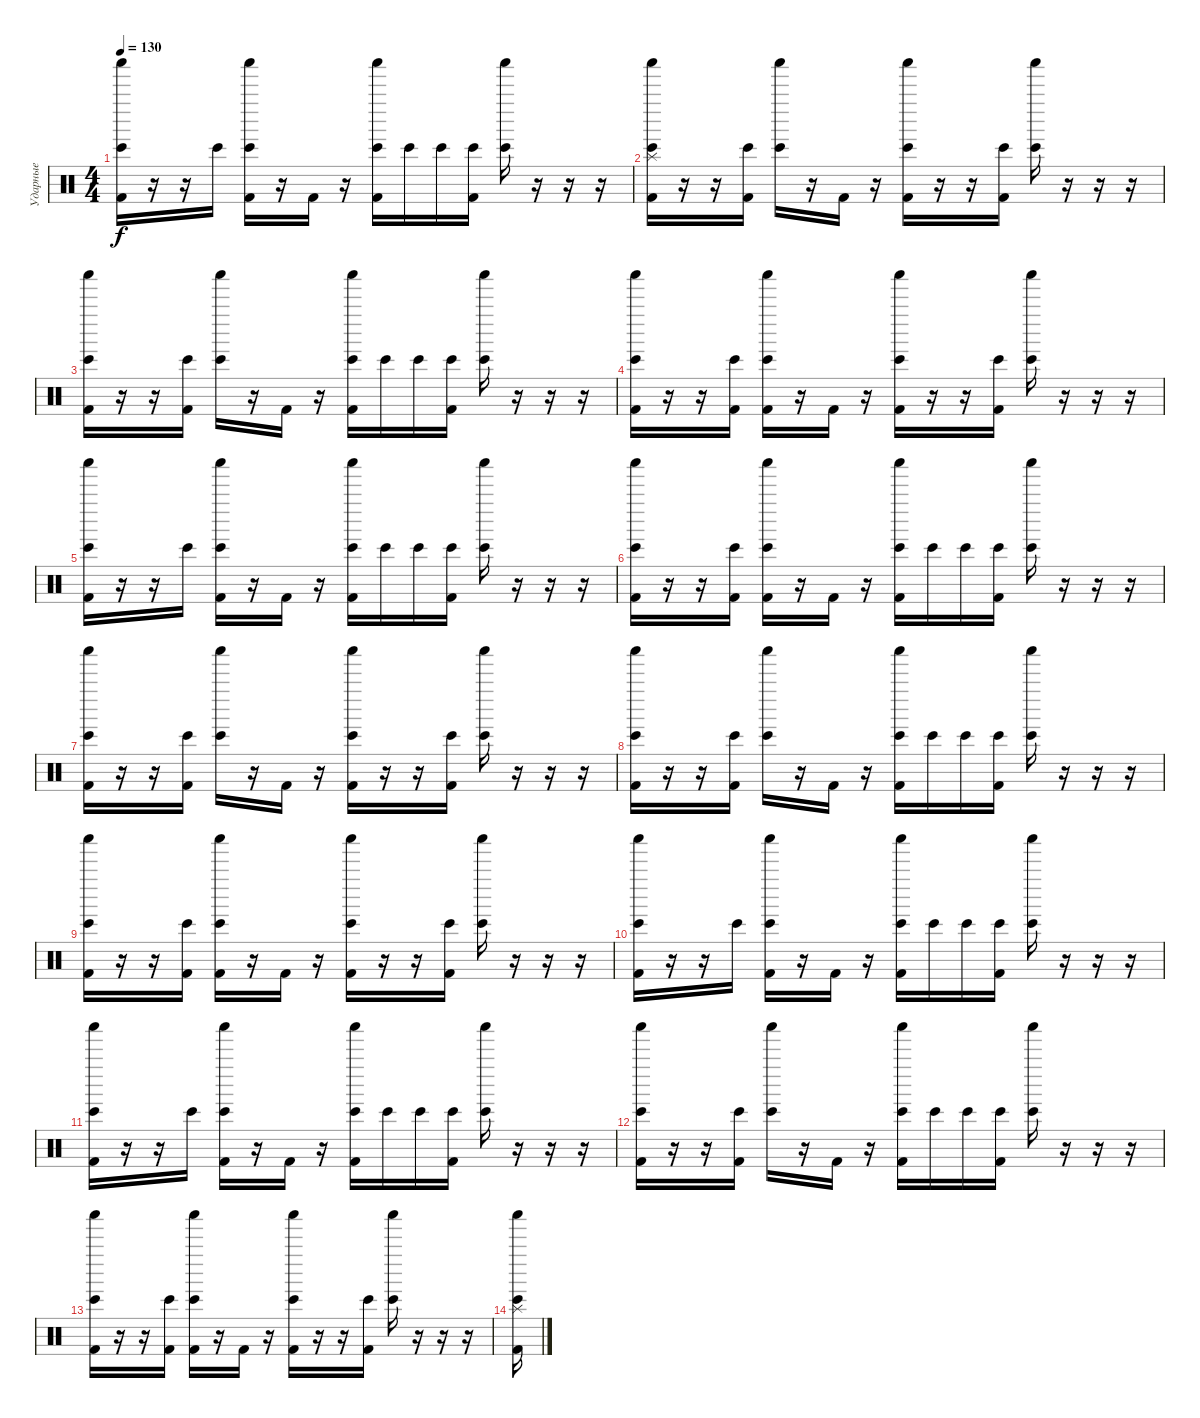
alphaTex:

\track ("Ударные" "Ударные") {instrument percussion}
\staff {score}
\articulation defaults
\ts (4 4)
\tempo 130
\clef neutral
\ks c
("Bongo High (hit)" "Shaker (hit)" "Kick (hit) 2").16{dy f} r.16 r.16 "Bongo High (hit)".16 ("Bongo High (hit)" "Shaker (hit)" "Kick (hit) 2").16 r.16 "Kick (hit) 2".16 r.16 ("Bongo High (hit)" "Shaker (hit)" "Kick (hit) 2").16 "Bongo High (hit)".16 "Bongo High (hit)".16 ("Bongo High (hit)" "Kick (hit) 2").16 ("Bongo High (hit)" "Shaker (hit)").16 r.16 r.16 r.16 |
("Bongo High (hit)" "Splash (hit)" "Shaker (hit)" "Kick (hit) 2").16 r.16 r.16 ("Bongo High (hit)" "Kick (hit) 2").16 ("Bongo High (hit)" "Shaker (hit)").16 r.16 "Kick (hit) 2".16 r.16 ("Bongo High (hit)" "Shaker (hit)" "Kick (hit) 2").16 r.16 r.16 ("Bongo High (hit)" "Kick (hit) 2").16 ("Bongo High (hit)" "Shaker (hit)").16 r.16 r.16 r.16 |
("Bongo High (hit)" "Shaker (hit)" "Kick (hit) 2").16 r.16 r.16 ("Bongo High (hit)" "Kick (hit) 2").16 ("Bongo High (hit)" "Shaker (hit)").16 r.16 "Kick (hit) 2".16 r.16 ("Bongo High (hit)" "Shaker (hit)" "Kick (hit) 2").16 "Bongo High (hit)".16 "Bongo High (hit)".16 ("Bongo High (hit)" "Kick (hit) 2").16 ("Bongo High (hit)" "Shaker (hit)").16 r.16 r.16 r.16 |
("Bongo High (hit)" "Shaker (hit)" "Kick (hit) 2").16 r.16 r.16 ("Bongo High (hit)" "Kick (hit) 2").16 ("Bongo High (hit)" "Shaker (hit)" "Kick (hit) 2").16 r.16 "Kick (hit) 2".16 r.16 ("Bongo High (hit)" "Shaker (hit)" "Kick (hit) 2").16 r.16 r.16 ("Bongo High (hit)" "Kick (hit) 2").16 ("Bongo High (hit)" "Shaker (hit)").16 r.16 r.16 r.16 |
("Bongo High (hit)" "Shaker (hit)" "Kick (hit) 2").16 r.16 r.16 "Bongo High (hit)".16 ("Bongo High (hit)" "Shaker (hit)" "Kick (hit) 2").16 r.16 "Kick (hit) 2".16 r.16 ("Bongo High (hit)" "Shaker (hit)" "Kick (hit) 2").16 "Bongo High (hit)".16 "Bongo High (hit)".16 ("Bongo High (hit)" "Kick (hit) 2").16 ("Bongo High (hit)" "Shaker (hit)").16 r.16 r.16 r.16 |
("Bongo High (hit)" "Shaker (hit)" "Kick (hit) 2").16 r.16 r.16 ("Bongo High (hit)" "Kick (hit) 2").16 ("Bongo High (hit)" "Shaker (hit)" "Kick (hit) 2").16 r.16 "Kick (hit) 2".16 r.16 ("Bongo High (hit)" "Shaker (hit)" "Kick (hit) 2").16 "Bongo High (hit)".16 "Bongo High (hit)".16 ("Bongo High (hit)" "Kick (hit) 2").16 ("Bongo High (hit)" "Shaker (hit)").16 r.16 r.16 r.16 |
("Bongo High (hit)" "Shaker (hit)" "Kick (hit) 2").16 r.16 r.16 ("Bongo High (hit)" "Kick (hit) 2").16 ("Bongo High (hit)" "Shaker (hit)").16 r.16 "Kick (hit) 2".16 r.16 ("Bongo High (hit)" "Shaker (hit)" "Kick (hit) 2").16 r.16 r.16 ("Bongo High (hit)" "Kick (hit) 2").16 ("Bongo High (hit)" "Shaker (hit)").16 r.16 r.16 r.16 |
("Bongo High (hit)" "Shaker (hit)" "Kick (hit) 2").16 r.16 r.16 ("Bongo High (hit)" "Kick (hit) 2").16 ("Bongo High (hit)" "Shaker (hit)").16 r.16 "Kick (hit) 2".16 r.16 ("Bongo High (hit)" "Shaker (hit)" "Kick (hit) 2").16 "Bongo High (hit)".16 "Bongo High (hit)".16 ("Bongo High (hit)" "Kick (hit) 2").16 ("Bongo High (hit)" "Shaker (hit)").16 r.16 r.16 r.16 |
("Bongo High (hit)" "Shaker (hit)" "Kick (hit) 2").16 r.16 r.16 ("Bongo High (hit)" "Kick (hit) 2").16 ("Bongo High (hit)" "Shaker (hit)" "Kick (hit) 2").16 r.16 "Kick (hit) 2".16 r.16 ("Bongo High (hit)" "Shaker (hit)" "Kick (hit) 2").16 r.16 r.16 ("Bongo High (hit)" "Kick (hit) 2").16 ("Bongo High (hit)" "Shaker (hit)").16 r.16 r.16 r.16 |
("Bongo High (hit)" "Shaker (hit)" "Kick (hit) 2").16 r.16 r.16 "Bongo High (hit)".16 ("Bongo High (hit)" "Shaker (hit)" "Kick (hit) 2").16 r.16 "Kick (hit) 2".16 r.16 ("Bongo High (hit)" "Shaker (hit)" "Kick (hit) 2").16 "Bongo High (hit)".16 "Bongo High (hit)".16 ("Bongo High (hit)" "Kick (hit) 2").16 ("Bongo High (hit)" "Shaker (hit)").16 r.16 r.16 r.16 |
("Bongo High (hit)" "Shaker (hit)" "Kick (hit) 2").16 r.16 r.16 "Bongo High (hit)".16 ("Bongo High (hit)" "Shaker (hit)" "Kick (hit) 2").16 r.16 "Kick (hit) 2".16 r.16 ("Bongo High (hit)" "Shaker (hit)" "Kick (hit) 2").16 "Bongo High (hit)".16 "Bongo High (hit)".16 ("Bongo High (hit)" "Kick (hit) 2").16 ("Bongo High (hit)" "Shaker (hit)").16 r.16 r.16 r.16 |
("Bongo High (hit)" "Shaker (hit)" "Kick (hit) 2").16 r.16 r.16 ("Bongo High (hit)" "Kick (hit) 2").16 ("Bongo High (hit)" "Shaker (hit)").16 r.16 "Kick (hit) 2".16 r.16 ("Bongo High (hit)" "Shaker (hit)" "Kick (hit) 2").16 "Bongo High (hit)".16 "Bongo High (hit)".16 ("Bongo High (hit)" "Kick (hit) 2").16 ("Bongo High (hit)" "Shaker (hit)").16 r.16 r.16 r.16 |
("Bongo High (hit)" "Shaker (hit)" "Kick (hit) 2").16 r.16 r.16 ("Bongo High (hit)" "Kick (hit) 2").16 ("Bongo High (hit)" "Shaker (hit)" "Kick (hit) 2").16 r.16 "Kick (hit) 2".16 r.16 ("Bongo High (hit)" "Shaker (hit)" "Kick (hit) 2").16 r.16 r.16 ("Bongo High (hit)" "Kick (hit) 2").16 ("Bongo High (hit)" "Shaker (hit)").16 r.16 r.16 r.16 |
("Splash (hit)" "Bongo High (hit)" "Shaker (hit)" "Kick (hit) 2").16
